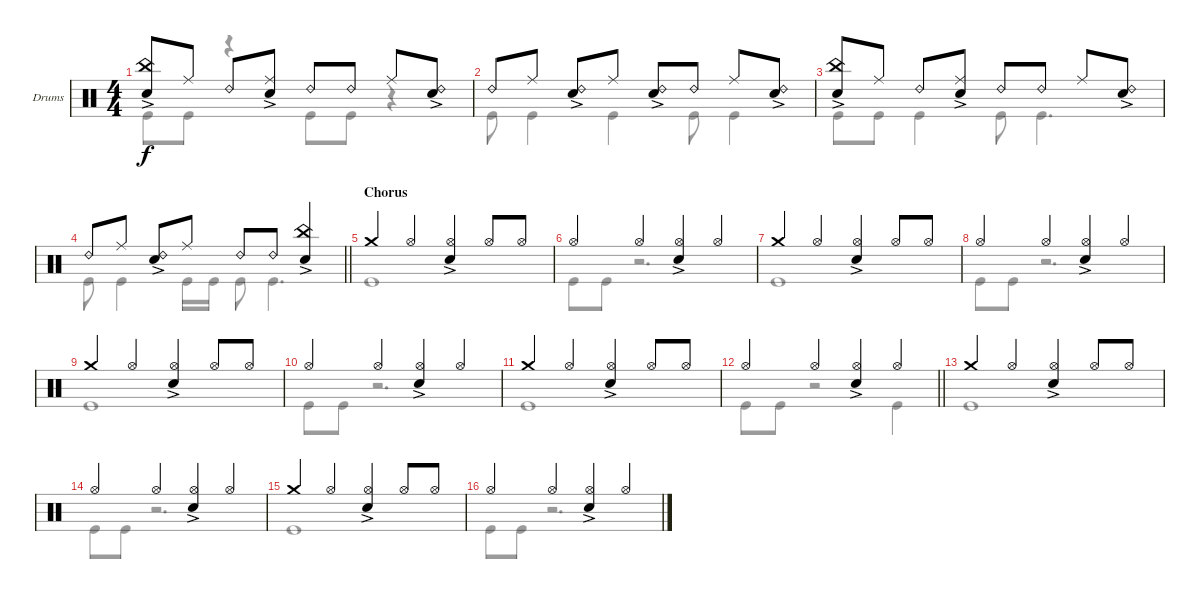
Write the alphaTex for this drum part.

\bracketExtendMode groupsimilarinstruments
\firstSystemTrackNameOrientation horizontal
\otherSystemsTrackNameOrientation horizontal
\track ("Drumkit" "Drums") {instrument percussion}
\staff {score}
\articulation defaults
\voice
\ts (4 4)
\tempo (184 hide)
\clef neutral
\ks c
("China (hit)" "Snare (hit) 2"{ac}).8{dy f} "Ride (middle)".8 "Ride (bell) 2".8 ("Ride (middle)" "Snare (hit) 2"{ac}).8 "Ride (bell) 2".8 "Ride (bell) 2".8 "Ride (middle)".8 ("Ride (bell) 2" "Snare (hit) 2"{ac}).8 |
"Ride (bell) 2".8 "Ride (middle)".8 ("Ride (bell) 2" "Snare (hit) 2"{ac}).8 "Ride (middle)".8 ("Ride (bell) 2" "Snare (hit) 2"{ac}).8 "Ride (bell) 2".8 "Ride (middle)".8 ("Ride (bell) 2" "Snare (hit) 2"{ac}).8 |
("China (hit)" "Snare (hit) 2"{ac}).8 "Ride (middle)".8 "Ride (bell) 2".8 ("Ride (middle)" "Snare (hit) 2"{ac}).8 "Ride (bell) 2".8 "Ride (bell) 2".8 "Ride (middle)".8 ("Ride (bell) 2" "Snare (hit) 2"{ac}).8 |
\tempo (184 "Moderately Slow Rock" 1 hide)
\barLineRight lightlight "Ride (bell) 2".8 "Ride (middle)".8
("Ride (bell) 2" "Snare (hit) 2"{ac}).8 "Ride (middle)".8 "Ride (bell) 2".8 "Ride (bell) 2".8 ("China (hit)" "Snare (hit) 2"{ac}).4 |
\section ("" "Chorus")
\tempo (184 "Moderate Rock" hide)
"Crash medium (hit)".4 "Hi-Hat (open)".4 ("Hi-Hat (open)" "Snare (hit) 2"{ac}).4 "Hi-Hat (open)".8 "Hi-Hat (open)".8 |
"Hi-Hat (open)".4 "Hi-Hat (open)".4 ("Hi-Hat (open)" "Snare (hit) 2"{ac}).4 "Hi-Hat (open)".4 |
"Crash medium (hit)".4 "Hi-Hat (open)".4 ("Hi-Hat (open)" "Snare (hit) 2"{ac}).4 "Hi-Hat (open)".8 "Hi-Hat (open)".8 |
"Hi-Hat (open)".4 "Hi-Hat (open)".4 ("Hi-Hat (open)" "Snare (hit) 2"{ac}).4 "Hi-Hat (open)".4 |
"Crash medium (hit)".4 "Hi-Hat (open)".4 ("Hi-Hat (open)" "Snare (hit) 2"{ac}).4 "Hi-Hat (open)".8 "Hi-Hat (open)".8 |
"Hi-Hat (open)".4 "Hi-Hat (open)".4 ("Hi-Hat (open)" "Snare (hit) 2"{ac}).4 "Hi-Hat (open)".4 |
"Crash medium (hit)".4 "Hi-Hat (open)".4 ("Hi-Hat (open)" "Snare (hit) 2"{ac}).4 "Hi-Hat (open)".8 "Hi-Hat (open)".8 |
\barLineRight lightlight "Hi-Hat (open)".4 "Hi-Hat (open)".4
("Hi-Hat (open)" "Snare (hit) 2"{ac}).4 "Hi-Hat (open)".4 |
"Crash medium (hit)".4 "Hi-Hat (open)".4 ("Hi-Hat (open)" "Snare (hit) 2"{ac}).4 "Hi-Hat (open)".8 "Hi-Hat (open)".8 |
"Hi-Hat (open)".4 "Hi-Hat (open)".4 ("Hi-Hat (open)" "Snare (hit) 2"{ac}).4 "Hi-Hat (open)".4 |
"Crash medium (hit)".4 "Hi-Hat (open)".4 ("Hi-Hat (open)" "Snare (hit) 2"{ac}).4 "Hi-Hat (open)".8 "Hi-Hat (open)".8 |
"Hi-Hat (open)".4 "Hi-Hat (open)".4 ("Hi-Hat (open)" "Snare (hit) 2"{ac}).4 "Hi-Hat (open)".4
\voice
\clef neutral
\ottava regular
\simile none
\ks c "Kick (hit)".8{dy f} "Kick (hit)".8
r.4 "Kick (hit)".8 "Kick (hit)".8 r.4 |
"Kick (hit)".8 "Kick (hit)".4 "Kick (hit)".4 "Kick (hit)".8 "Kick (hit)".4 |
"Kick (hit)".8 "Kick (hit)".8 "Kick (hit)".4 "Kick (hit)".8 "Kick (hit)".4{d} |
\barLineRight lightlight "Kick (hit)".8 "Kick (hit)".4 "Kick (hit)".16 "Kick (hit)".16 "Kick (hit)".8 "Kick (hit)".4{d}
|
"Kick (hit)".1 |
"Kick (hit)".8 "Kick (hit)".8 r.2{d} |
"Kick (hit)".1 |
"Kick (hit)".8 "Kick (hit)".8 r.2{d} |
"Kick (hit)".1 |
"Kick (hit)".8 "Kick (hit)".8 r.2{d} |
"Kick (hit)".1 |
\barLineRight lightlight "Kick (hit)".8 "Kick (hit)".8
r.2 "Kick (hit)".4 |
"Kick (hit)".1 |
"Kick (hit)".8 "Kick (hit)".8 r.2{d} |
"Kick (hit)".1 |
"Kick (hit)".8 "Kick (hit)".8 r.2{d}
